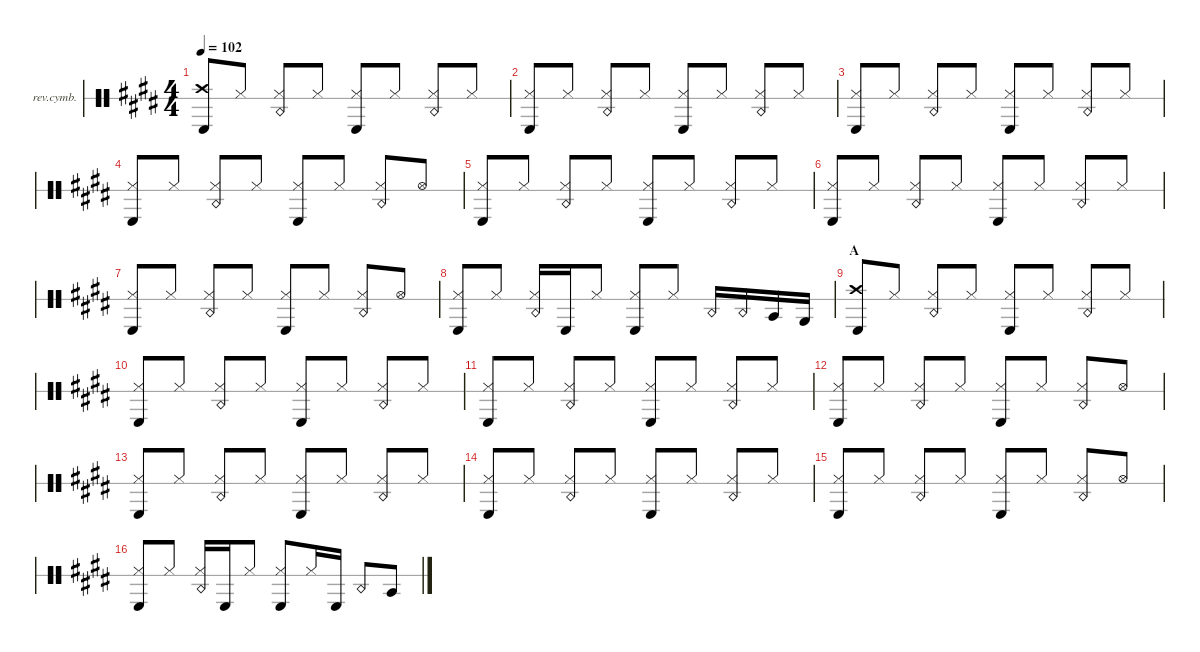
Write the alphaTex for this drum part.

\defaultSystemsLayout 4
\hideDynamics
\bracketExtendMode nobrackets
\firstSystemTrackNameOrientation horizontal
\otherSystemsTrackNameOrientation horizontal
\track ("Reverse Cymbal" "rev.cymb.") {defaultSystemsLayout 4 instrument percussion}
\staff {score 1}
\articulation defaults
\ts (4 4)
\tempo 102
\clef neutral
\ks e
("Kick (hit) 2"{acc forcenatural} "Crash high (hit)"{acc forcenatural}).8{dy mf beam Up} "Hi-Hat (closed)"{acc forcenatural}.8{beam Up} ("Hi-Hat (closed)"{acc forcenatural} "Snare (rim shot)"{acc forcenatural}).8{dy f beam Up} "Hi-Hat (closed)"{acc forcenatural}.8{dy mf beam Up} ("Kick (hit) 2"{acc forcenatural} "Hi-Hat (closed)"{acc forcenatural}).8{beam Up} "Hi-Hat (closed)"{acc forcenatural}.8{beam Up} ("Hi-Hat (closed)"{acc forcenatural} "Snare (rim shot)"{acc forcenatural}).8{dy f beam Up} "Hi-Hat (closed)"{acc forcenatural}.8{dy mf beam Up} |
("Kick (hit) 2"{acc forcenatural} "Hi-Hat (closed)"{acc forcenatural}).8{beam Up} "Hi-Hat (closed)"{acc forcenatural}.8{beam Up} ("Hi-Hat (closed)"{acc forcenatural} "Snare (rim shot)"{acc forcenatural}).8{dy f beam Up} "Hi-Hat (closed)"{acc forcenatural}.8{dy mf beam Up} ("Kick (hit) 2"{acc forcenatural} "Hi-Hat (closed)"{acc forcenatural}).8{beam Up} "Hi-Hat (closed)"{acc forcenatural}.8{beam Up} ("Hi-Hat (closed)"{acc forcenatural} "Snare (rim shot)"{acc forcenatural}).8{dy f beam Up} "Hi-Hat (closed)"{acc forcenatural}.8{dy mf beam Up} |
("Kick (hit) 2"{acc forcenatural} "Hi-Hat (closed)"{acc forcenatural}).8{beam Up} "Hi-Hat (closed)"{acc forcenatural}.8{beam Up} ("Hi-Hat (closed)"{acc forcenatural} "Snare (rim shot)"{acc forcenatural}).8{dy f beam Up} "Hi-Hat (closed)"{acc forcenatural}.8{dy mf beam Up} ("Kick (hit) 2"{acc forcenatural} "Hi-Hat (closed)"{acc forcenatural}).8{beam Up} "Hi-Hat (closed)"{acc forcenatural}.8{beam Up} ("Hi-Hat (closed)"{acc forcenatural} "Snare (rim shot)"{acc forcenatural}).8{dy f beam Up} "Hi-Hat (closed)"{acc forcenatural}.8{dy mf beam Up} |
("Kick (hit) 2"{acc forcenatural} "Hi-Hat (closed)"{acc forcenatural}).8{beam Up} "Hi-Hat (closed)"{acc forcenatural}.8{beam Up} ("Hi-Hat (closed)"{acc forcenatural} "Snare (rim shot)"{acc forcenatural}).8{dy f beam Up} "Hi-Hat (closed)"{acc forcenatural}.8{dy mf beam Up} ("Kick (hit) 2"{acc forcenatural} "Hi-Hat (closed)"{acc forcenatural}).8{beam Up} "Hi-Hat (closed)"{acc forcenatural}.8{beam Up} ("Hi-Hat (closed)"{acc forcenatural} "Snare (rim shot)"{acc forcenatural}).8{dy f beam Up} "Hi-Hat (open)"{acc forcenatural}.8{dy mf beam Up} |
("Kick (hit) 2"{acc forcenatural} "Hi-Hat (closed)"{acc forcenatural}).8{beam Up} "Hi-Hat (closed)"{acc forcenatural}.8{beam Up} ("Hi-Hat (closed)"{acc forcenatural} "Snare (rim shot)"{acc forcenatural}).8{dy f beam Up} "Hi-Hat (closed)"{acc forcenatural}.8{dy mf beam Up} ("Kick (hit) 2"{acc forcenatural} "Hi-Hat (closed)"{acc forcenatural}).8{beam Up} "Hi-Hat (closed)"{acc forcenatural}.8{beam Up} ("Hi-Hat (closed)"{acc forcenatural} "Snare (rim shot)"{acc forcenatural}).8{dy f beam Up} "Hi-Hat (closed)"{acc forcenatural}.8{dy mf beam Up} |
("Kick (hit) 2"{acc forcenatural} "Hi-Hat (closed)"{acc forcenatural}).8{beam Up} "Hi-Hat (closed)"{acc forcenatural}.8{beam Up} ("Hi-Hat (closed)"{acc forcenatural} "Snare (rim shot)"{acc forcenatural}).8{dy f beam Up} "Hi-Hat (closed)"{acc forcenatural}.8{dy mf beam Up} ("Kick (hit) 2"{acc forcenatural} "Hi-Hat (closed)"{acc forcenatural}).8{beam Up} "Hi-Hat (closed)"{acc forcenatural}.8{beam Up} ("Hi-Hat (closed)"{acc forcenatural} "Snare (rim shot)"{acc forcenatural}).8{dy f beam Up} "Hi-Hat (closed)"{acc forcenatural}.8{dy mf beam Up} |
("Kick (hit) 2"{acc forcenatural} "Hi-Hat (closed)"{acc forcenatural}).8{beam Up} "Hi-Hat (closed)"{acc forcenatural}.8{beam Up} ("Hi-Hat (closed)"{acc forcenatural} "Snare (rim shot)"{acc forcenatural}).8{dy f beam Up} "Hi-Hat (closed)"{acc forcenatural}.8{dy mf beam Up} ("Kick (hit) 2"{acc forcenatural} "Hi-Hat (closed)"{acc forcenatural}).8{beam Up} "Hi-Hat (closed)"{acc forcenatural}.8{beam Up} ("Hi-Hat (closed)"{acc forcenatural} "Snare (rim shot)"{acc forcenatural}).8{dy f beam Up} "Hi-Hat (open)"{acc forcenatural}.8{dy mf beam Up} |
("Kick (hit) 2"{acc forcenatural} "Hi-Hat (closed)"{acc forcenatural}).8{beam Up} "Hi-Hat (closed)"{acc forcenatural}.8{beam Up} ("Hi-Hat (closed)"{acc forcenatural} "Snare (rim shot)"{acc forcenatural}).16{dy f beam Up} "Kick (hit) 2"{acc forcenatural}.16{dy mf beam Up} "Hi-Hat (closed)"{acc forcenatural}.8{beam Up} ("Hi-Hat (closed)"{acc forcenatural} "Kick (hit) 2"{acc forcenatural}).8{beam Up} "Hi-Hat (closed)"{acc forcenatural}.8{beam Up} "Snare (rim shot)"{acc forcenatural}.16{dy f beam Up} "Snare (rim shot)"{acc forcenatural}.16{beam Up} "Mid Tom (hit)"{acc forcenatural}.16{beam Up} "Low Tom (hit)"{acc forcenatural}.16{beam Up} |
\section ("" "A")
("Kick (hit) 2"{acc forcenatural} "Crash high (hit)"{acc forcenatural}).8{dy mf beam Up} "Hi-Hat (closed)"{acc forcenatural}.8{beam Up} ("Hi-Hat (closed)"{acc forcenatural} "Snare (rim shot)"{acc forcenatural}).8{dy f beam Up} "Hi-Hat (closed)"{acc forcenatural}.8{dy mf beam Up} ("Kick (hit) 2"{acc forcenatural} "Hi-Hat (closed)"{acc forcenatural}).8{beam Up} "Hi-Hat (closed)"{acc forcenatural}.8{beam Up} ("Hi-Hat (closed)"{acc forcenatural} "Snare (rim shot)"{acc forcenatural}).8{dy f beam Up} "Hi-Hat (closed)"{acc forcenatural}.8{dy mf beam Up} |
("Kick (hit) 2"{acc forcenatural} "Hi-Hat (closed)"{acc forcenatural}).8{beam Up} "Hi-Hat (closed)"{acc forcenatural}.8{beam Up} ("Hi-Hat (closed)"{acc forcenatural} "Snare (rim shot)"{acc forcenatural}).8{dy f beam Up} "Hi-Hat (closed)"{acc forcenatural}.8{dy mf beam Up} ("Kick (hit) 2"{acc forcenatural} "Hi-Hat (closed)"{acc forcenatural}).8{beam Up} "Hi-Hat (closed)"{acc forcenatural}.8{beam Up} ("Hi-Hat (closed)"{acc forcenatural} "Snare (rim shot)"{acc forcenatural}).8{dy f beam Up} "Hi-Hat (closed)"{acc forcenatural}.8{dy mf beam Up} |
("Kick (hit) 2"{acc forcenatural} "Hi-Hat (closed)"{acc forcenatural}).8{beam Up} "Hi-Hat (closed)"{acc forcenatural}.8{beam Up} ("Hi-Hat (closed)"{acc forcenatural} "Snare (rim shot)"{acc forcenatural}).8{dy f beam Up} "Hi-Hat (closed)"{acc forcenatural}.8{dy mf beam Up} ("Kick (hit) 2"{acc forcenatural} "Hi-Hat (closed)"{acc forcenatural}).8{beam Up} "Hi-Hat (closed)"{acc forcenatural}.8{beam Up} ("Hi-Hat (closed)"{acc forcenatural} "Snare (rim shot)"{acc forcenatural}).8{dy f beam Up} "Hi-Hat (closed)"{acc forcenatural}.8{dy mf beam Up} |
("Kick (hit) 2"{acc forcenatural} "Hi-Hat (closed)"{acc forcenatural}).8{beam Up} "Hi-Hat (closed)"{acc forcenatural}.8{beam Up} ("Hi-Hat (closed)"{acc forcenatural} "Snare (rim shot)"{acc forcenatural}).8{dy f beam Up} "Hi-Hat (closed)"{acc forcenatural}.8{dy mf beam Up} ("Kick (hit) 2"{acc forcenatural} "Hi-Hat (closed)"{acc forcenatural}).8{beam Up} "Hi-Hat (closed)"{acc forcenatural}.8{beam Up} ("Hi-Hat (closed)"{acc forcenatural} "Snare (rim shot)"{acc forcenatural}).8{dy f beam Up} "Hi-Hat (open)"{acc forcenatural}.8{dy mf beam Up} |
("Kick (hit) 2"{acc forcenatural} "Hi-Hat (closed)"{acc forcenatural}).8{beam Up} "Hi-Hat (closed)"{acc forcenatural}.8{beam Up} ("Hi-Hat (closed)"{acc forcenatural} "Snare (rim shot)"{acc forcenatural}).8{dy f beam Up} "Hi-Hat (closed)"{acc forcenatural}.8{dy mf beam Up} ("Kick (hit) 2"{acc forcenatural} "Hi-Hat (closed)"{acc forcenatural}).8{beam Up} "Hi-Hat (closed)"{acc forcenatural}.8{beam Up} ("Hi-Hat (closed)"{acc forcenatural} "Snare (rim shot)"{acc forcenatural}).8{dy f beam Up} "Hi-Hat (closed)"{acc forcenatural}.8{dy mf beam Up} |
("Kick (hit) 2"{acc forcenatural} "Hi-Hat (closed)"{acc forcenatural}).8{beam Up} "Hi-Hat (closed)"{acc forcenatural}.8{beam Up} ("Hi-Hat (closed)"{acc forcenatural} "Snare (rim shot)"{acc forcenatural}).8{dy f beam Up} "Hi-Hat (closed)"{acc forcenatural}.8{dy mf beam Up} ("Kick (hit) 2"{acc forcenatural} "Hi-Hat (closed)"{acc forcenatural}).8{beam Up} "Hi-Hat (closed)"{acc forcenatural}.8{beam Up} ("Hi-Hat (closed)"{acc forcenatural} "Snare (rim shot)"{acc forcenatural}).8{dy f beam Up} "Hi-Hat (closed)"{acc forcenatural}.8{dy mf beam Up} |
("Kick (hit) 2"{acc forcenatural} "Hi-Hat (closed)"{acc forcenatural}).8{beam Up} "Hi-Hat (closed)"{acc forcenatural}.8{beam Up} ("Hi-Hat (closed)"{acc forcenatural} "Snare (rim shot)"{acc forcenatural}).8{dy f beam Up} "Hi-Hat (closed)"{acc forcenatural}.8{dy mf beam Up} ("Kick (hit) 2"{acc forcenatural} "Hi-Hat (closed)"{acc forcenatural}).8{beam Up} "Hi-Hat (closed)"{acc forcenatural}.8{beam Up} ("Hi-Hat (closed)"{acc forcenatural} "Snare (rim shot)"{acc forcenatural}).8{dy f beam Up} "Hi-Hat (open)"{acc forcenatural}.8{dy mf beam Up} |
("Kick (hit) 2"{acc forcenatural} "Hi-Hat (closed)"{acc forcenatural}).8{beam Up} "Hi-Hat (closed)"{acc forcenatural}.8{beam Up} ("Hi-Hat (closed)"{acc forcenatural} "Snare (rim shot)"{acc forcenatural}).16{dy f beam Up} "Kick (hit) 2"{acc forcenatural}.16{dy mf beam Up} "Hi-Hat (closed)"{acc forcenatural}.8{beam Up} ("Hi-Hat (closed)"{acc forcenatural} "Kick (hit) 2"{acc forcenatural}).8{beam Up} "Hi-Hat (closed)"{acc forcenatural}.16{beam Up} "Kick (hit) 2"{acc forcenatural}.16{beam Up} "Snare (rim shot)"{acc forcenatural}.8{dy f beam Up} "Mid Tom (hit)"{acc forcenatural}.8{beam Up}
